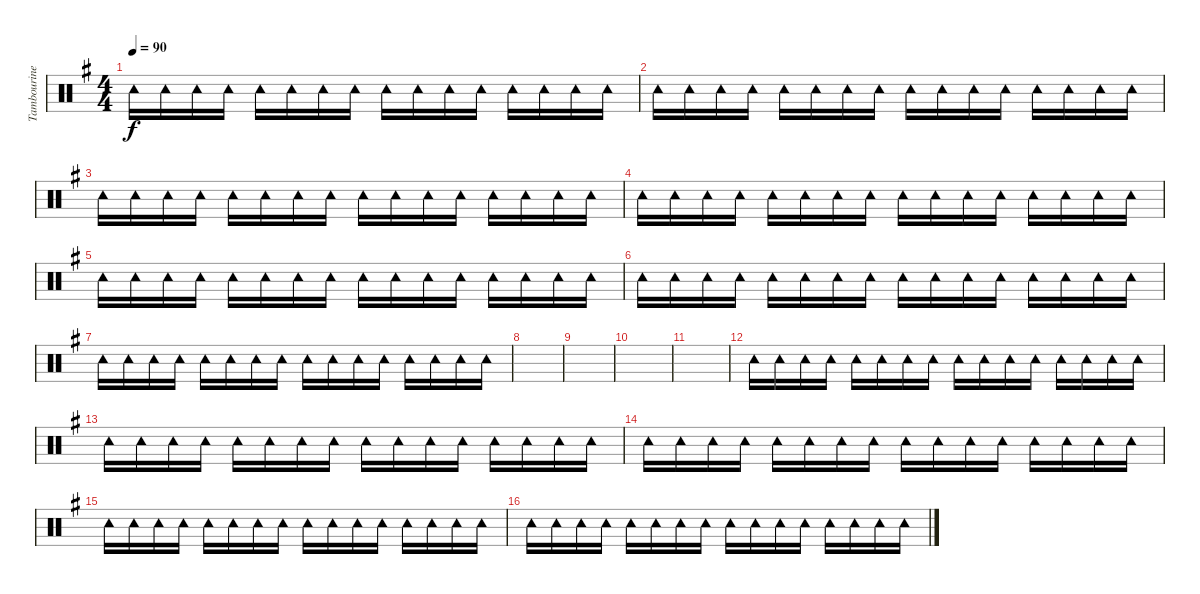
\track ("Tambourine" "Tambourine") {instrument percussion}
\staff {score}
\articulation defaults
\ts (4 4)
\tempo 90
\clef neutral
\ks g "Tambourine (hit)".16{dy f} "Tambourine (hit)".16 "Tambourine (hit)".16 "Tambourine (hit)".16 "Tambourine (hit)".16 "Tambourine (hit)".16 "Tambourine (hit)".16 "Tambourine (hit)".16 "Tambourine (hit)".16 "Tambourine (hit)".16 "Tambourine (hit)".16 "Tambourine (hit)".16 "Tambourine (hit)".16 "Tambourine (hit)".16 "Tambourine (hit)".16 "Tambourine (hit)".16
|
"Tambourine (hit)".16 "Tambourine (hit)".16 "Tambourine (hit)".16 "Tambourine (hit)".16 "Tambourine (hit)".16 "Tambourine (hit)".16 "Tambourine (hit)".16 "Tambourine (hit)".16 "Tambourine (hit)".16 "Tambourine (hit)".16 "Tambourine (hit)".16 "Tambourine (hit)".16 "Tambourine (hit)".16 "Tambourine (hit)".16 "Tambourine (hit)".16 "Tambourine (hit)".16 |
"Tambourine (hit)".16 "Tambourine (hit)".16 "Tambourine (hit)".16 "Tambourine (hit)".16 "Tambourine (hit)".16 "Tambourine (hit)".16 "Tambourine (hit)".16 "Tambourine (hit)".16 "Tambourine (hit)".16 "Tambourine (hit)".16 "Tambourine (hit)".16 "Tambourine (hit)".16 "Tambourine (hit)".16 "Tambourine (hit)".16 "Tambourine (hit)".16 "Tambourine (hit)".16 |
"Tambourine (hit)".16 "Tambourine (hit)".16 "Tambourine (hit)".16 "Tambourine (hit)".16 "Tambourine (hit)".16 "Tambourine (hit)".16 "Tambourine (hit)".16 "Tambourine (hit)".16 "Tambourine (hit)".16 "Tambourine (hit)".16 "Tambourine (hit)".16 "Tambourine (hit)".16 "Tambourine (hit)".16 "Tambourine (hit)".16 "Tambourine (hit)".16 "Tambourine (hit)".16 |
"Tambourine (hit)".16 "Tambourine (hit)".16 "Tambourine (hit)".16 "Tambourine (hit)".16 "Tambourine (hit)".16 "Tambourine (hit)".16 "Tambourine (hit)".16 "Tambourine (hit)".16 "Tambourine (hit)".16 "Tambourine (hit)".16 "Tambourine (hit)".16 "Tambourine (hit)".16 "Tambourine (hit)".16 "Tambourine (hit)".16 "Tambourine (hit)".16 "Tambourine (hit)".16 |
"Tambourine (hit)".16 "Tambourine (hit)".16 "Tambourine (hit)".16 "Tambourine (hit)".16 "Tambourine (hit)".16 "Tambourine (hit)".16 "Tambourine (hit)".16 "Tambourine (hit)".16 "Tambourine (hit)".16 "Tambourine (hit)".16 "Tambourine (hit)".16 "Tambourine (hit)".16 "Tambourine (hit)".16 "Tambourine (hit)".16 "Tambourine (hit)".16 "Tambourine (hit)".16 |
"Tambourine (hit)".16 "Tambourine (hit)".16 "Tambourine (hit)".16 "Tambourine (hit)".16 "Tambourine (hit)".16 "Tambourine (hit)".16 "Tambourine (hit)".16 "Tambourine (hit)".16 "Tambourine (hit)".16 "Tambourine (hit)".16 "Tambourine (hit)".16 "Tambourine (hit)".16 "Tambourine (hit)".16 "Tambourine (hit)".16 "Tambourine (hit)".16 "Tambourine (hit)".16 |
|
|
|
|
"Tambourine (hit)".16 "Tambourine (hit)".16 "Tambourine (hit)".16 "Tambourine (hit)".16 "Tambourine (hit)".16 "Tambourine (hit)".16 "Tambourine (hit)".16 "Tambourine (hit)".16 "Tambourine (hit)".16 "Tambourine (hit)".16 "Tambourine (hit)".16 "Tambourine (hit)".16 "Tambourine (hit)".16 "Tambourine (hit)".16 "Tambourine (hit)".16 "Tambourine (hit)".16 |
"Tambourine (hit)".16 "Tambourine (hit)".16 "Tambourine (hit)".16 "Tambourine (hit)".16 "Tambourine (hit)".16 "Tambourine (hit)".16 "Tambourine (hit)".16 "Tambourine (hit)".16 "Tambourine (hit)".16 "Tambourine (hit)".16 "Tambourine (hit)".16 "Tambourine (hit)".16 "Tambourine (hit)".16 "Tambourine (hit)".16 "Tambourine (hit)".16 "Tambourine (hit)".16 |
"Tambourine (hit)".16 "Tambourine (hit)".16 "Tambourine (hit)".16 "Tambourine (hit)".16 "Tambourine (hit)".16 "Tambourine (hit)".16 "Tambourine (hit)".16 "Tambourine (hit)".16 "Tambourine (hit)".16 "Tambourine (hit)".16 "Tambourine (hit)".16 "Tambourine (hit)".16 "Tambourine (hit)".16 "Tambourine (hit)".16 "Tambourine (hit)".16 "Tambourine (hit)".16 |
"Tambourine (hit)".16 "Tambourine (hit)".16 "Tambourine (hit)".16 "Tambourine (hit)".16 "Tambourine (hit)".16 "Tambourine (hit)".16 "Tambourine (hit)".16 "Tambourine (hit)".16 "Tambourine (hit)".16 "Tambourine (hit)".16 "Tambourine (hit)".16 "Tambourine (hit)".16 "Tambourine (hit)".16 "Tambourine (hit)".16 "Tambourine (hit)".16 "Tambourine (hit)".16 |
"Tambourine (hit)".16 "Tambourine (hit)".16 "Tambourine (hit)".16 "Tambourine (hit)".16 "Tambourine (hit)".16 "Tambourine (hit)".16 "Tambourine (hit)".16 "Tambourine (hit)".16 "Tambourine (hit)".16 "Tambourine (hit)".16 "Tambourine (hit)".16 "Tambourine (hit)".16 "Tambourine (hit)".16 "Tambourine (hit)".16 "Tambourine (hit)".16 "Tambourine (hit)".16
